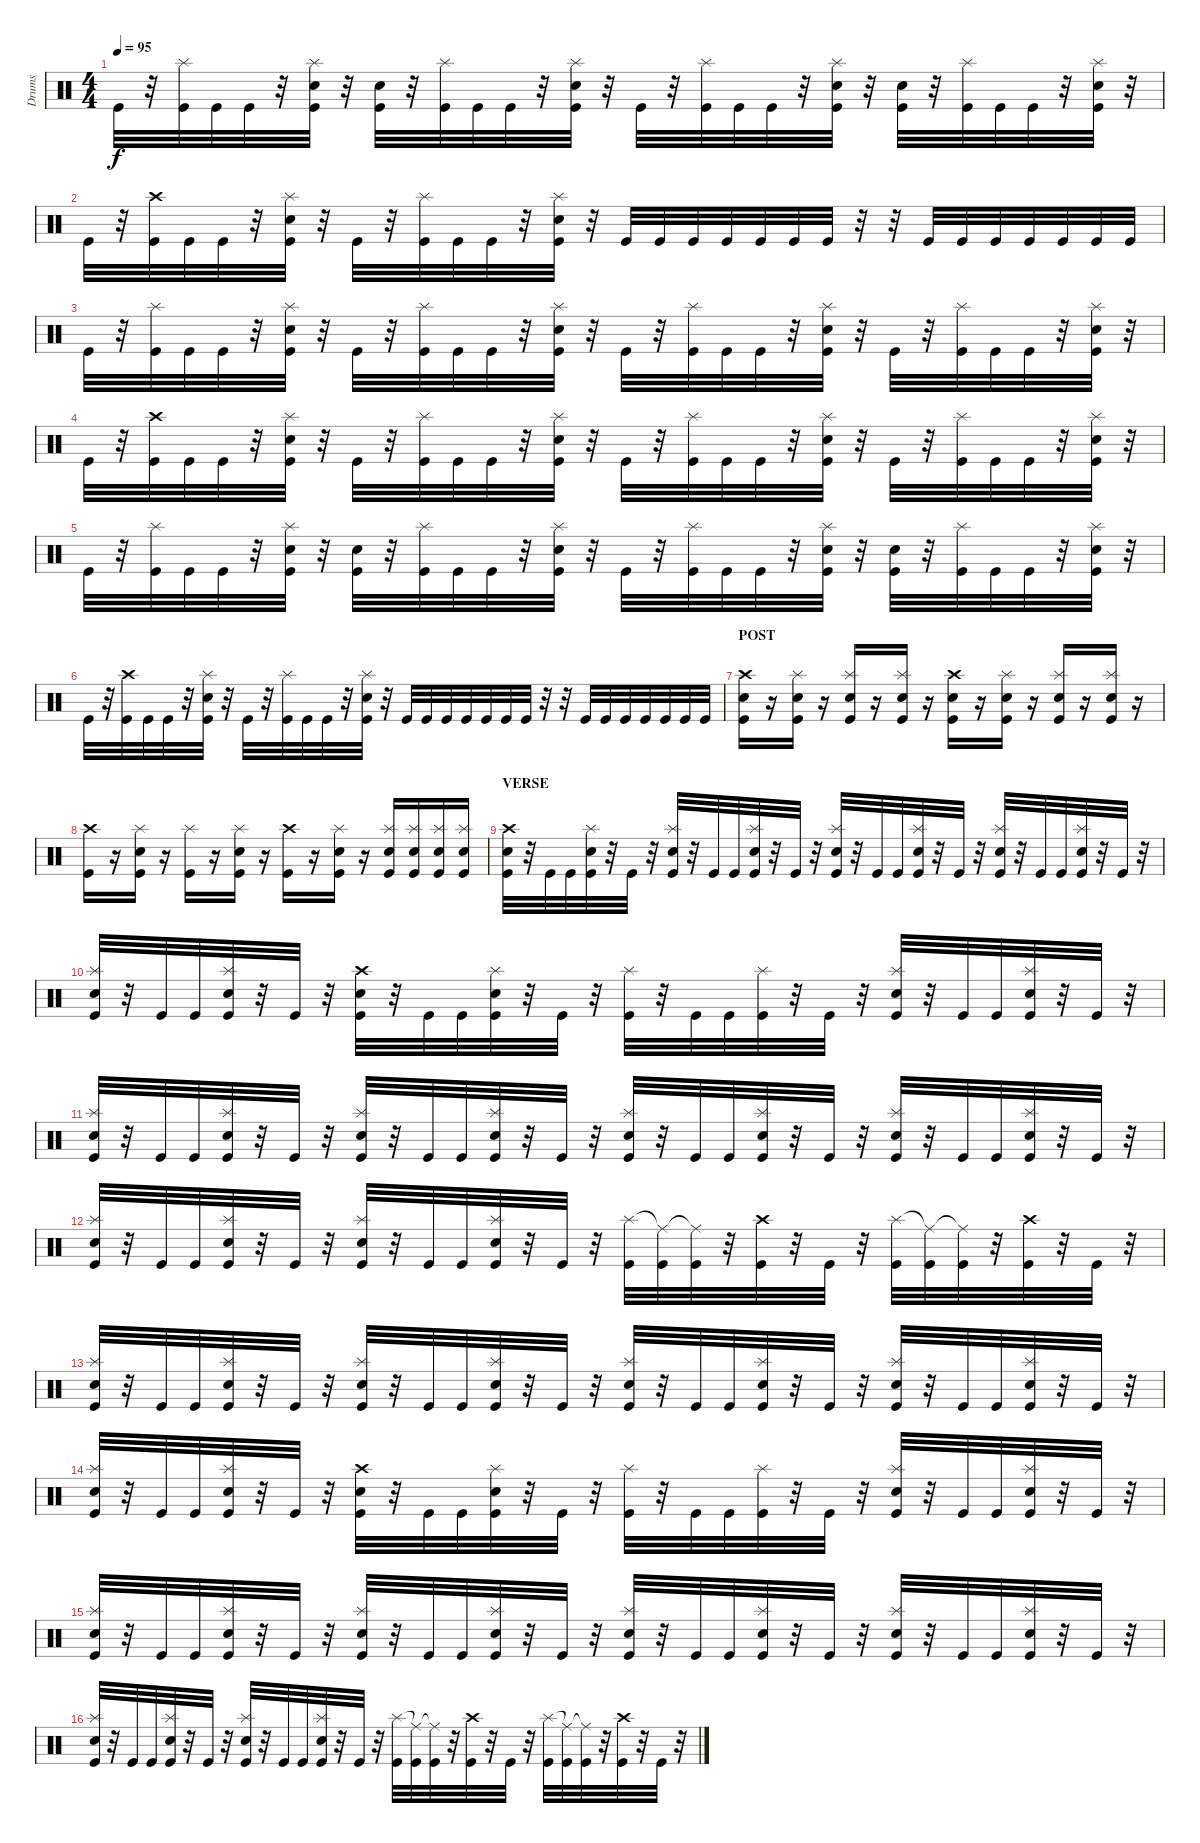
\track ("Drums" "Drums") {instrument percussion}
\staff {score}
\articulation defaults
\ts (4 4)
\tempo 95
\clef neutral
\ks c "Kick (hit)".32{dy f}
r.32 ("Splash (hit)" "Kick (hit)").32 "Kick (hit)".32 "Kick (hit)".32 r.32 ("Splash (hit)" "Snare (hit) 2" "Kick (hit)").32 r.32 ("Snare (hit) 2" "Kick (hit)").32 r.32 ("Splash (hit)" "Kick (hit)").32 "Kick (hit)".32 "Kick (hit)".32 r.32 ("Splash (hit)" "Snare (hit) 2" "Kick (hit)").32 r.32 "Kick (hit)".32 r.32 ("Splash (hit)" "Kick (hit)").32 "Kick (hit)".32 "Kick (hit)".32 r.32 ("Splash (hit)" "Snare (hit) 2" "Kick (hit)").32 r.32 ("Snare (hit) 2" "Kick (hit)").32 r.32 ("Splash (hit)" "Kick (hit)").32 "Kick (hit)".32 "Kick (hit)".32 r.32 ("Splash (hit)" "Snare (hit) 2" "Kick (hit)").32 r.32 |
"Kick (hit)".32 r.32 ("Crash high (hit)" "Kick (hit)").32 "Kick (hit)".32 "Kick (hit)".32 r.32 ("Splash (hit)" "Snare (hit) 2" "Kick (hit)").32 r.32 "Kick (hit)".32 r.32 ("Splash (hit)" "Kick (hit)").32 "Kick (hit)".32 "Kick (hit)".32 r.32 ("Splash (hit)" "Snare (hit) 2" "Kick (hit)").32 r.32 "Kick (hit)".32 "Kick (hit)".32 "Kick (hit)".32 "Kick (hit)".32 "Kick (hit)".32 "Kick (hit)".32 "Kick (hit)".32 r.32 r.32 "Kick (hit)".32 "Kick (hit)".32 "Kick (hit)".32 "Kick (hit)".32 "Kick (hit)".32 "Kick (hit)".32 "Kick (hit)".32 |
"Kick (hit)".32 r.32 ("Splash (hit)" "Kick (hit)").32 "Kick (hit)".32 "Kick (hit)".32 r.32 ("Splash (hit)" "Snare (hit) 2" "Kick (hit)").32 r.32 "Kick (hit)".32 r.32 ("Splash (hit)" "Kick (hit)").32 "Kick (hit)".32 "Kick (hit)".32 r.32 ("Splash (hit)" "Snare (hit) 2" "Kick (hit)").32 r.32 "Kick (hit)".32 r.32 ("Splash (hit)" "Kick (hit)").32 "Kick (hit)".32 "Kick (hit)".32 r.32 ("Splash (hit)" "Snare (hit) 2" "Kick (hit)").32 r.32 "Kick (hit)".32 r.32 ("Splash (hit)" "Kick (hit)").32 "Kick (hit)".32 "Kick (hit)".32 r.32 ("Splash (hit)" "Snare (hit) 2" "Kick (hit)").32 r.32 |
"Kick (hit)".32 r.32 ("Crash high (hit)" "Kick (hit)").32 "Kick (hit)".32 "Kick (hit)".32 r.32 ("Splash (hit)" "Snare (hit) 2" "Kick (hit)").32 r.32 "Kick (hit)".32 r.32 ("Splash (hit)" "Kick (hit)").32 "Kick (hit)".32 "Kick (hit)".32 r.32 ("Splash (hit)" "Snare (hit) 2" "Kick (hit)").32 r.32 "Kick (hit)".32 r.32 ("Splash (hit)" "Kick (hit)").32 "Kick (hit)".32 "Kick (hit)".32 r.32 ("Splash (hit)" "Snare (hit) 2" "Kick (hit)").32 r.32 "Kick (hit)".32 r.32 ("Splash (hit)" "Kick (hit)").32 "Kick (hit)".32 "Kick (hit)".32 r.32 ("Splash (hit)" "Snare (hit) 2" "Kick (hit)").32 r.32 |
"Kick (hit)".32 r.32 ("Splash (hit)" "Kick (hit)").32 "Kick (hit)".32 "Kick (hit)".32 r.32 ("Splash (hit)" "Snare (hit) 2" "Kick (hit)").32 r.32 ("Snare (hit) 2" "Kick (hit)").32 r.32 ("Splash (hit)" "Kick (hit)").32 "Kick (hit)".32 "Kick (hit)".32 r.32 ("Splash (hit)" "Snare (hit) 2" "Kick (hit)").32 r.32 "Kick (hit)".32 r.32 ("Splash (hit)" "Kick (hit)").32 "Kick (hit)".32 "Kick (hit)".32 r.32 ("Splash (hit)" "Snare (hit) 2" "Kick (hit)").32 r.32 ("Snare (hit) 2" "Kick (hit)").32 r.32 ("Splash (hit)" "Kick (hit)").32 "Kick (hit)".32 "Kick (hit)".32 r.32 ("Splash (hit)" "Snare (hit) 2" "Kick (hit)").32 r.32 |
"Kick (hit)".32 r.32 ("Crash high (hit)" "Kick (hit)").32 "Kick (hit)".32 "Kick (hit)".32 r.32 ("Splash (hit)" "Snare (hit) 2" "Kick (hit)").32 r.32 "Kick (hit)".32 r.32 ("Splash (hit)" "Kick (hit)").32 "Kick (hit)".32 "Kick (hit)".32 r.32 ("Splash (hit)" "Snare (hit) 2" "Kick (hit)").32 r.32 "Kick (hit)".32 "Kick (hit)".32 "Kick (hit)".32 "Kick (hit)".32 "Kick (hit)".32 "Kick (hit)".32 "Kick (hit)".32 r.32 r.32 "Kick (hit)".32 "Kick (hit)".32 "Kick (hit)".32 "Kick (hit)".32 "Kick (hit)".32 "Kick (hit)".32 "Kick (hit)".32 |
\section ("" "POST")
("Crash high (hit)" "Snare (hit) 2" "Kick (hit)").16 r.16 ("Splash (hit)" "Snare (hit) 2" "Kick (hit)").16 r.16 ("Splash (hit)" "Snare (hit) 2" "Kick (hit)").16 r.16 ("Splash (hit)" "Snare (hit) 2" "Kick (hit)").16 r.16 ("Crash high (hit)" "Snare (hit) 2" "Kick (hit)").16 r.16 ("Splash (hit)" "Snare (hit) 2" "Kick (hit)").16 r.16 ("Splash (hit)" "Snare (hit) 2" "Kick (hit)").16 r.16 ("Splash (hit)" "Snare (hit) 2" "Kick (hit)").16 r.16 |
("Crash high (hit)" "Kick (hit)").16 r.16 ("Splash (hit)" "Snare (hit) 2" "Kick (hit)").16 r.16 ("Splash (hit)" "Kick (hit)").16 r.16 ("Splash (hit)" "Snare (hit) 2" "Kick (hit)").16 r.16 ("Crash high (hit)" "Kick (hit)").16 r.16 ("Splash (hit)" "Snare (hit) 2" "Kick (hit)").16 r.16 ("Splash (hit)" "Snare (hit) 2" "Kick (hit)").16 ("Splash (hit)" "Snare (hit) 2" "Kick (hit)").16 ("Splash (hit)" "Snare (hit) 2" "Kick (hit)").16 ("Splash (hit)" "Snare (hit) 2" "Kick (hit)").16 |
\section ("" "VERSE")
("Crash high (hit)" "Snare (hit) 2" "Kick (hit)").32{volume 12} r.32 "Kick (hit)".32 "Kick (hit)".32 ("Splash (hit)" "Snare (hit) 2" "Kick (hit)").32 r.32 "Kick (hit)".32 r.32 ("Splash (hit)" "Snare (hit) 2" "Kick (hit)").32 r.32 "Kick (hit)".32 "Kick (hit)".32 ("Splash (hit)" "Snare (hit) 2" "Kick (hit)").32 r.32 "Kick (hit)".32 r.32 ("Splash (hit)" "Snare (hit) 2" "Kick (hit)").32 r.32 "Kick (hit)".32 "Kick (hit)".32 ("Splash (hit)" "Snare (hit) 2" "Kick (hit)").32 r.32 "Kick (hit)".32 r.32 ("Splash (hit)" "Snare (hit) 2" "Kick (hit)").32 r.32 "Kick (hit)".32 "Kick (hit)".32 ("Splash (hit)" "Snare (hit) 2" "Kick (hit)").32 r.32 "Kick (hit)".32 r.32 |
("Splash (hit)" "Snare (hit) 2" "Kick (hit)").32 r.32 "Kick (hit)".32 "Kick (hit)".32 ("Splash (hit)" "Snare (hit) 2" "Kick (hit)").32 r.32 "Kick (hit)".32 r.32 ("Crash high (hit)" "Snare (hit) 2" "Kick (hit)").32 r.32 "Kick (hit)".32 "Kick (hit)".32 ("Splash (hit)" "Snare (hit) 2" "Kick (hit)").32 r.32 "Kick (hit)".32 r.32 ("Splash (hit)" "Kick (hit)").32 r.32 "Kick (hit)".32 "Kick (hit)".32 ("Splash (hit)" "Kick (hit)").32 r.32 "Kick (hit)".32 r.32 ("Splash (hit)" "Snare (hit) 2" "Kick (hit)").32 r.32 "Kick (hit)".32 "Kick (hit)".32 ("Splash (hit)" "Snare (hit) 2" "Kick (hit)").32 r.32 "Kick (hit)".32 r.32 |
("Splash (hit)" "Snare (hit) 2" "Kick (hit)").32 r.32 "Kick (hit)".32 "Kick (hit)".32 ("Splash (hit)" "Snare (hit) 2" "Kick (hit)").32 r.32 "Kick (hit)".32 r.32 ("Splash (hit)" "Snare (hit) 2" "Kick (hit)").32 r.32 "Kick (hit)".32 "Kick (hit)".32 ("Splash (hit)" "Snare (hit) 2" "Kick (hit)").32 r.32 "Kick (hit)".32 r.32 ("Splash (hit)" "Snare (hit) 2" "Kick (hit)").32 r.32 "Kick (hit)".32 "Kick (hit)".32 ("Splash (hit)" "Snare (hit) 2" "Kick (hit)").32 r.32 "Kick (hit)".32 r.32 ("Splash (hit)" "Snare (hit) 2" "Kick (hit)").32 r.32 "Kick (hit)".32 "Kick (hit)".32 ("Splash (hit)" "Snare (hit) 2" "Kick (hit)").32 r.32 "Kick (hit)".32 r.32 |
("Splash (hit)" "Snare (hit) 2" "Kick (hit)").32 r.32 "Kick (hit)".32 "Kick (hit)".32 ("Splash (hit)" "Snare (hit) 2" "Kick (hit)").32 r.32 "Kick (hit)".32 r.32 ("Splash (hit)" "Snare (hit) 2" "Kick (hit)").32 r.32 "Kick (hit)".32 "Kick (hit)".32 ("Splash (hit)" "Snare (hit) 2" "Kick (hit)").32 r.32 "Kick (hit)".32 r.32 ("Splash (hit)" "Kick (hit)").32 ("Ride (middle)"{t} "Kick (hit)").32 ("Ride (middle)"{t} "Kick (hit)").32 r.32 ("Crash high (hit)" "Kick (hit)").32 r.32 "Kick (hit)".32 r.32 ("Splash (hit)" "Kick (hit)").32 ("Ride (middle)"{t} "Kick (hit)").32 ("Ride (middle)"{t} "Kick (hit)").32 r.32 ("Crash high (hit)" "Kick (hit)").32 r.32 "Kick (hit)".32 r.32 |
("Splash (hit)" "Snare (hit) 2" "Kick (hit)").32{volume 12} r.32 "Kick (hit)".32 "Kick (hit)".32 ("Splash (hit)" "Snare (hit) 2" "Kick (hit)").32 r.32 "Kick (hit)".32 r.32 ("Splash (hit)" "Snare (hit) 2" "Kick (hit)").32 r.32 "Kick (hit)".32 "Kick (hit)".32 ("Splash (hit)" "Snare (hit) 2" "Kick (hit)").32 r.32 "Kick (hit)".32 r.32 ("Splash (hit)" "Snare (hit) 2" "Kick (hit)").32 r.32 "Kick (hit)".32 "Kick (hit)".32 ("Splash (hit)" "Snare (hit) 2" "Kick (hit)").32 r.32 "Kick (hit)".32 r.32 ("Splash (hit)" "Snare (hit) 2" "Kick (hit)").32 r.32 "Kick (hit)".32 "Kick (hit)".32 ("Splash (hit)" "Snare (hit) 2" "Kick (hit)").32 r.32 "Kick (hit)".32 r.32 |
("Splash (hit)" "Snare (hit) 2" "Kick (hit)").32 r.32 "Kick (hit)".32 "Kick (hit)".32 ("Splash (hit)" "Snare (hit) 2" "Kick (hit)").32 r.32 "Kick (hit)".32 r.32 ("Crash high (hit)" "Snare (hit) 2" "Kick (hit)").32 r.32 "Kick (hit)".32 "Kick (hit)".32 ("Splash (hit)" "Snare (hit) 2" "Kick (hit)").32 r.32 "Kick (hit)".32 r.32 ("Splash (hit)" "Kick (hit)").32 r.32 "Kick (hit)".32 "Kick (hit)".32 ("Splash (hit)" "Kick (hit)").32 r.32 "Kick (hit)".32 r.32 ("Splash (hit)" "Snare (hit) 2" "Kick (hit)").32 r.32 "Kick (hit)".32 "Kick (hit)".32 ("Splash (hit)" "Snare (hit) 2" "Kick (hit)").32 r.32 "Kick (hit)".32 r.32 |
("Splash (hit)" "Snare (hit) 2" "Kick (hit)").32 r.32 "Kick (hit)".32 "Kick (hit)".32 ("Splash (hit)" "Snare (hit) 2" "Kick (hit)").32 r.32 "Kick (hit)".32 r.32 ("Splash (hit)" "Snare (hit) 2" "Kick (hit)").32 r.32 "Kick (hit)".32 "Kick (hit)".32 ("Splash (hit)" "Snare (hit) 2" "Kick (hit)").32 r.32 "Kick (hit)".32 r.32 ("Splash (hit)" "Snare (hit) 2" "Kick (hit)").32 r.32 "Kick (hit)".32 "Kick (hit)".32 ("Splash (hit)" "Snare (hit) 2" "Kick (hit)").32 r.32 "Kick (hit)".32 r.32 ("Splash (hit)" "Snare (hit) 2" "Kick (hit)").32 r.32 "Kick (hit)".32 "Kick (hit)".32 ("Splash (hit)" "Snare (hit) 2" "Kick (hit)").32 r.32 "Kick (hit)".32 r.32 |
("Splash (hit)" "Snare (hit) 2" "Kick (hit)").32 r.32 "Kick (hit)".32 "Kick (hit)".32 ("Splash (hit)" "Snare (hit) 2" "Kick (hit)").32 r.32 "Kick (hit)".32 r.32 ("Splash (hit)" "Snare (hit) 2" "Kick (hit)").32 r.32 "Kick (hit)".32 "Kick (hit)".32 ("Splash (hit)" "Snare (hit) 2" "Kick (hit)").32 r.32 "Kick (hit)".32 r.32 ("Splash (hit)" "Kick (hit)").32 ("Ride (middle)"{t} "Kick (hit)").32 ("Ride (middle)"{t} "Kick (hit)").32 r.32 ("Crash high (hit)" "Kick (hit)").32 r.32 "Kick (hit)".32 r.32 ("Splash (hit)" "Kick (hit)").32 ("Ride (middle)"{t} "Kick (hit)").32 ("Ride (middle)"{t} "Kick (hit)").32 r.32 ("Crash high (hit)" "Kick (hit)").32 r.32 "Kick (hit)".32 r.32
